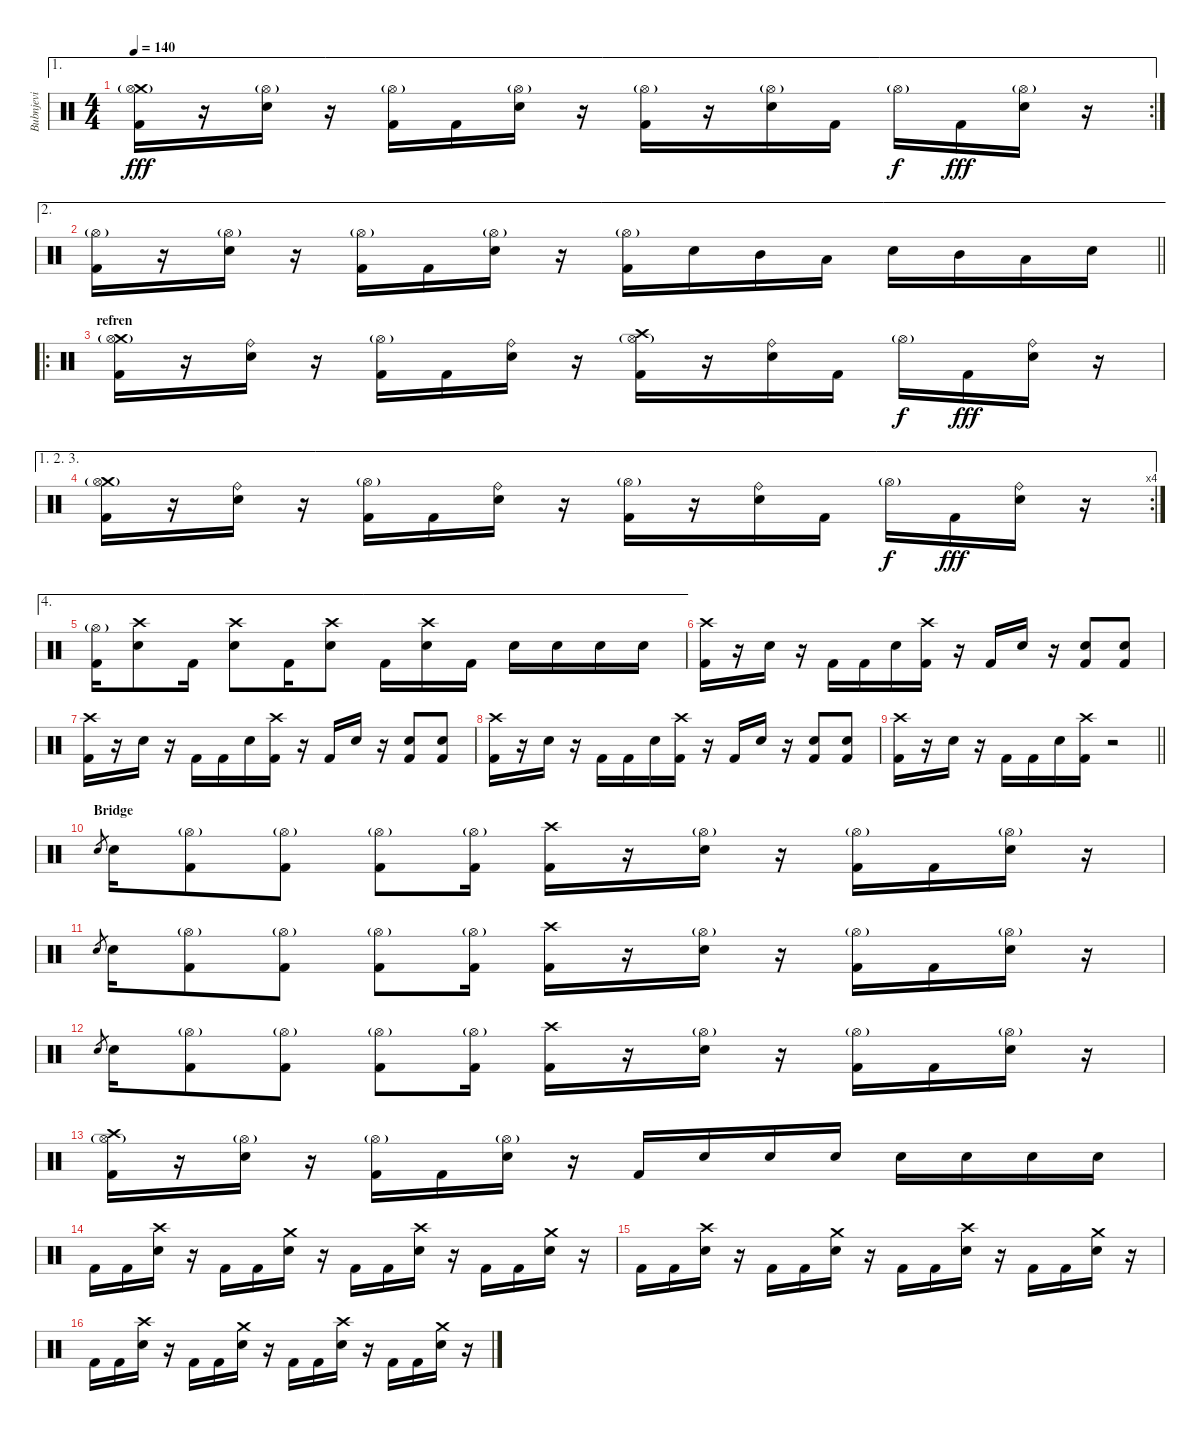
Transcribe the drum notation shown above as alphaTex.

\track ("Bubnjevi" "Bubnjevi") {instrument percussion}
\staff {score}
\articulation defaults
\ae 1
\rc 2
\ts (4 4)
\tempo 140
\clef neutral
\ks c
("Crash medium (hit)" "Hi-Hat (open)"{g} "Kick (hit) 2").16{dy fff} r.16 ("Hi-Hat (open)"{g} "Snare (hit) 2").16 r.16 ("Hi-Hat (open)"{g} "Kick (hit) 2").16 "Kick (hit) 2".16 ("Hi-Hat (open)"{g} "Snare (hit) 2").16 r.16 ("Hi-Hat (open)"{g} "Kick (hit) 2").16 r.16 ("Hi-Hat (open)"{g} "Snare (hit) 2").16 "Kick (hit) 2".16 "Hi-Hat (open)"{g}.16{dy f} "Kick (hit) 2".16{dy fff} ("Hi-Hat (open)"{g} "Snare (hit) 2").16 r.16 |
\ae 2
\barLineRight lightlight
("Hi-Hat (open)"{g} "Kick (hit) 2").16 r.16 ("Hi-Hat (open)"{g} "Snare (hit) 2").16 r.16 ("Hi-Hat (open)"{g} "Kick (hit) 2").16 "Kick (hit) 2".16 ("Hi-Hat (open)"{g} "Snare (hit) 2").16 r.16 ("Hi-Hat (open)"{g} "Kick (hit) 2").16 "Snare (hit) 2".16 "Mid Tom (hit)".16 "Low Tom (hit)".16 "Snare (hit) 2".16 "Mid Tom (hit)".16 "Low Tom (hit)".16 "Snare (hit) 2".16 |
\ro
\section ("" "refren")
("Crash medium (hit)" "Hi-Hat (open)"{g} "Kick (hit) 2").16 r.16 ("Ride (bell)" "Snare (hit) 2").16 r.16 ("Hi-Hat (open)"{g} "Kick (hit) 2").16 "Kick (hit) 2".16 ("Ride (bell)" "Snare (hit) 2").16 r.16 ("Crash high (hit)" "Hi-Hat (open)"{g} "Kick (hit) 2").16 r.16 ("Ride (bell)" "Snare (hit) 2").16 "Kick (hit) 2".16 "Hi-Hat (open)"{g}.16{dy f} "Kick (hit) 2".16{dy fff} ("Ride (bell)" "Snare (hit) 2").16 r.16 |
\ae (1 2 3)
\rc 4
("Crash medium (hit)" "Hi-Hat (open)"{g} "Kick (hit) 2").16 r.16 ("Ride (bell)" "Snare (hit) 2").16 r.16 ("Hi-Hat (open)"{g} "Kick (hit) 2").16 "Kick (hit) 2".16 ("Ride (bell)" "Snare (hit) 2").16 r.16 ("Hi-Hat (open)"{g} "Kick (hit) 2").16 r.16 ("Ride (bell)" "Snare (hit) 2").16 "Kick (hit) 2".16 "Hi-Hat (open)"{g}.16{dy f} "Kick (hit) 2".16{dy fff} ("Ride (bell)" "Snare (hit) 2").16 r.16 |
\ae 4
("Hi-Hat (open)"{g} "Kick (hit) 2").16 ("Crash high (hit)" "Snare (hit) 2").8 "Kick (hit) 2".16 ("Crash high (hit)" "Snare (hit) 2").8 "Kick (hit) 2".16 ("Crash high (hit)" "Snare (hit) 2").8 "Kick (hit) 2".16 ("Crash high (hit)" "Snare (hit) 2").16 "Kick (hit) 2".16 "Snare (hit) 2".16 "Snare (hit) 2".16 "Snare (hit) 2".16 "Snare (hit) 2".16 |
("Crash high (hit)" "Kick (hit) 2").16 r.16 "Snare (hit) 2".16 r.16 "Kick (hit) 2".16 "Kick (hit) 2".16 "Snare (hit) 2".16 ("Crash high (hit)" "Kick (hit) 2").16 r.16 "Kick (hit) 2".16 "Snare (hit) 2".16 r.16 ("Snare (hit) 2" "Kick (hit) 2").8 ("Snare (hit) 2" "Kick (hit) 2").8 |
("Crash high (hit)" "Kick (hit) 2").16 r.16 "Snare (hit) 2".16 r.16 "Kick (hit) 2".16 "Kick (hit) 2".16 "Snare (hit) 2".16 ("Crash high (hit)" "Kick (hit) 2").16 r.16 "Kick (hit) 2".16 "Snare (hit) 2".16 r.16 ("Snare (hit) 2" "Kick (hit) 2").8 ("Snare (hit) 2" "Kick (hit) 2").8 |
("Crash high (hit)" "Kick (hit) 2").16 r.16 "Snare (hit) 2".16 r.16 "Kick (hit) 2".16 "Kick (hit) 2".16 "Snare (hit) 2".16 ("Crash high (hit)" "Kick (hit) 2").16 r.16 "Kick (hit) 2".16 "Snare (hit) 2".16 r.16 ("Snare (hit) 2" "Kick (hit) 2").8 ("Snare (hit) 2" "Kick (hit) 2").8 |
\barLineRight lightlight
("Crash high (hit)" "Kick (hit) 2").16 r.16 "Snare (hit) 2".16 r.16 "Kick (hit) 2".16 "Kick (hit) 2".16 "Snare (hit) 2".16 ("Crash high (hit)" "Kick (hit) 2").16 r.2 |
\section ("" "Bridge")
"Snare (hit) 2".8{gr} "Snare (hit) 2".16 ("Hi-Hat (open)"{g} "Kick (hit) 2").8 ("Hi-Hat (open)"{g} "Kick (hit) 2").8 ("Hi-Hat (open)"{g} "Kick (hit) 2").8 ("Hi-Hat (open)"{g} "Kick (hit) 2").16 ("Crash high (hit)" "Kick (hit) 2").16 r.16 ("Hi-Hat (open)"{g} "Snare (hit) 2").16 r.16 ("Hi-Hat (open)"{g} "Kick (hit) 2").16 "Kick (hit) 2".16 ("Hi-Hat (open)"{g} "Snare (hit) 2").16 r.16 |
"Snare (hit) 2".8{gr} "Snare (hit) 2".16 ("Hi-Hat (open)"{g} "Kick (hit) 2").8 ("Hi-Hat (open)"{g} "Kick (hit) 2").8 ("Hi-Hat (open)"{g} "Kick (hit) 2").8 ("Hi-Hat (open)"{g} "Kick (hit) 2").16 ("Crash high (hit)" "Kick (hit) 2").16 r.16 ("Hi-Hat (open)"{g} "Snare (hit) 2").16 r.16 ("Hi-Hat (open)"{g} "Kick (hit) 2").16 "Kick (hit) 2".16 ("Hi-Hat (open)"{g} "Snare (hit) 2").16 r.16 |
"Snare (hit) 2".8{gr} "Snare (hit) 2".16 ("Hi-Hat (open)"{g} "Kick (hit) 2").8 ("Hi-Hat (open)"{g} "Kick (hit) 2").8 ("Hi-Hat (open)"{g} "Kick (hit) 2").8 ("Hi-Hat (open)"{g} "Kick (hit) 2").16 ("Crash high (hit)" "Kick (hit) 2").16 r.16 ("Hi-Hat (open)"{g} "Snare (hit) 2").16 r.16 ("Hi-Hat (open)"{g} "Kick (hit) 2").16 "Kick (hit) 2".16 ("Hi-Hat (open)"{g} "Snare (hit) 2").16 r.16 |
("Crash high (hit)" "Hi-Hat (open)"{g} "Kick (hit) 2").16 r.16 ("Hi-Hat (open)"{g} "Snare (hit) 2").16 r.16 ("Hi-Hat (open)"{g} "Kick (hit) 2").16 "Kick (hit) 2".16 ("Hi-Hat (open)"{g} "Snare (hit) 2").16 r.16 "Kick (hit) 2".16 "Snare (hit) 2".16 "Snare (hit) 2".16 "Snare (hit) 2".16 "Snare (hit) 2".16 "Snare (hit) 2".16 "Snare (hit) 2".16 "Snare (hit) 2".16 |
"Kick (hit) 2".16 "Kick (hit) 2".16 ("Crash high (hit)" "Snare (hit) 2").16 r.16 "Kick (hit) 2".16 "Kick (hit) 2".16 ("Crash medium (hit)" "Snare (hit) 2").16 r.16 "Kick (hit) 2".16 "Kick (hit) 2".16 ("Crash high (hit)" "Snare (hit) 2").16 r.16 "Kick (hit) 2".16 "Kick (hit) 2".16 ("Crash medium (hit)" "Snare (hit) 2").16 r.16 |
"Kick (hit) 2".16 "Kick (hit) 2".16 ("Crash high (hit)" "Snare (hit) 2").16 r.16 "Kick (hit) 2".16 "Kick (hit) 2".16 ("Crash medium (hit)" "Snare (hit) 2").16 r.16 "Kick (hit) 2".16 "Kick (hit) 2".16 ("Crash high (hit)" "Snare (hit) 2").16 r.16 "Kick (hit) 2".16 "Kick (hit) 2".16 ("Crash medium (hit)" "Snare (hit) 2").16 r.16 |
"Kick (hit) 2".16 "Kick (hit) 2".16 ("Crash high (hit)" "Snare (hit) 2").16 r.16 "Kick (hit) 2".16 "Kick (hit) 2".16 ("Crash medium (hit)" "Snare (hit) 2").16 r.16 "Kick (hit) 2".16 "Kick (hit) 2".16 ("Crash high (hit)" "Snare (hit) 2").16 r.16 "Kick (hit) 2".16 "Kick (hit) 2".16 ("Crash medium (hit)" "Snare (hit) 2").16 r.16
